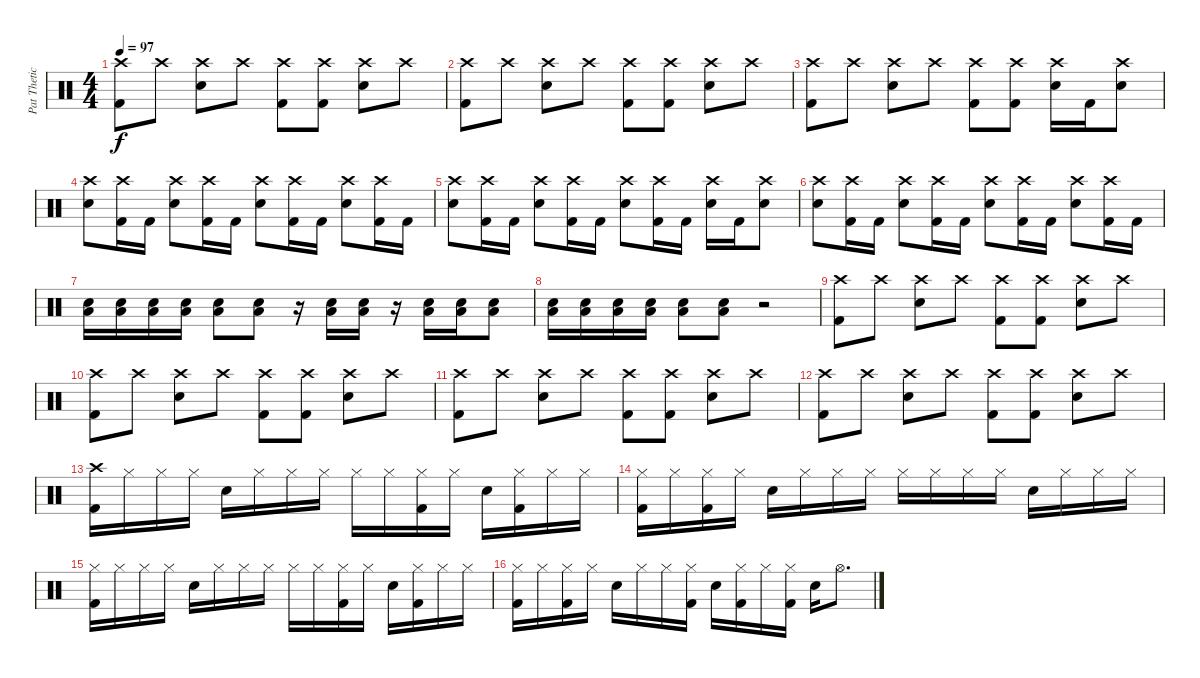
\track ("Pat Thetic" "Pat Thetic") {instrument percussion}
\staff {score}
\articulation defaults
\ts (4 4)
\tempo 97
\clef neutral
\ks c
("Crash high (hit)" "Kick (hit) 2").8{dy f} "Crash high (hit)".8 ("Crash high (hit)" "Electric Snare (hit)").8 "Crash high (hit)".8 ("Crash high (hit)" "Kick (hit) 2").8 ("Crash high (hit)" "Kick (hit) 2").8 ("Crash high (hit)" "Electric Snare (hit)").8 "Crash high (hit)".8 |
("Crash high (hit)" "Kick (hit) 2").8 "Crash high (hit)".8 ("Crash high (hit)" "Electric Snare (hit)").8 "Crash high (hit)".8 ("Crash high (hit)" "Kick (hit) 2").8 ("Crash high (hit)" "Kick (hit) 2").8 ("Crash high (hit)" "Electric Snare (hit)").8 "Crash high (hit)".8 |
("Crash high (hit)" "Kick (hit) 2").8 "Crash high (hit)".8 ("Crash high (hit)" "Electric Snare (hit)").8 "Crash high (hit)".8 ("Crash high (hit)" "Kick (hit) 2").8 ("Crash high (hit)" "Kick (hit) 2").8 ("Crash high (hit)" "Electric Snare (hit)").16 "Kick (hit) 2".16 ("Crash high (hit)" "Electric Snare (hit)").8 |
("Crash high (hit)" "Electric Snare (hit)").8 ("Crash high (hit)" "Kick (hit) 2").16 "Kick (hit) 2".16 ("Crash high (hit)" "Electric Snare (hit)").8 ("Crash high (hit)" "Kick (hit) 2").16 "Kick (hit) 2".16 ("Crash high (hit)" "Electric Snare (hit)").8 ("Crash high (hit)" "Kick (hit) 2").16 "Kick (hit) 2".16 ("Crash high (hit)" "Electric Snare (hit)").8 ("Crash high (hit)" "Kick (hit) 2").16 "Kick (hit) 2".16 |
("Crash high (hit)" "Electric Snare (hit)").8 ("Crash high (hit)" "Kick (hit) 2").16 "Kick (hit) 2".16 ("Crash high (hit)" "Electric Snare (hit)").8 ("Crash high (hit)" "Kick (hit) 2").16 "Kick (hit) 2".16 ("Crash high (hit)" "Electric Snare (hit)").8 ("Crash high (hit)" "Kick (hit) 2").16 "Kick (hit) 2".16 ("Crash high (hit)" "Electric Snare (hit)").16 "Kick (hit) 2".16 ("Crash high (hit)" "Electric Snare (hit)").8 |
("Crash high (hit)" "Electric Snare (hit)").8 ("Crash high (hit)" "Kick (hit) 2").16 "Kick (hit) 2".16 ("Crash high (hit)" "Electric Snare (hit)").8 ("Crash high (hit)" "Kick (hit) 2").16 "Kick (hit) 2".16 ("Crash high (hit)" "Electric Snare (hit)").8 ("Crash high (hit)" "Kick (hit) 2").16 "Kick (hit) 2".16 ("Crash high (hit)" "Electric Snare (hit)").8 ("Crash high (hit)" "Kick (hit) 2").16 "Kick (hit) 2".16 |
("Electric Snare (hit)" "Low Tom (hit)").16 ("Electric Snare (hit)" "Low Tom (hit)").16 ("Electric Snare (hit)" "Low Tom (hit)").16 ("Electric Snare (hit)" "Low Tom (hit)").16 ("Electric Snare (hit)" "Low Tom (hit)").8 ("Electric Snare (hit)" "Low Tom (hit)").8 r.16 ("Electric Snare (hit)" "Low Tom (hit)").16 ("Electric Snare (hit)" "Low Tom (hit)").16 r.16 ("Electric Snare (hit)" "Low Tom (hit)").16 ("Electric Snare (hit)" "Low Tom (hit)").16 ("Electric Snare (hit)" "Low Tom (hit)").8 |
("Low Tom (hit)" "Electric Snare (hit)").16 ("Low Tom (hit)" "Electric Snare (hit)").16 ("Low Tom (hit)" "Electric Snare (hit)").16 ("Low Tom (hit)" "Electric Snare (hit)").16 ("Low Tom (hit)" "Electric Snare (hit)").8 ("Low Tom (hit)" "Electric Snare (hit)").8 r.2 |
("Crash high (hit)" "Kick (hit) 2").8 "Crash high (hit)".8 ("Crash high (hit)" "Electric Snare (hit)").8 "Crash high (hit)".8 ("Crash high (hit)" "Kick (hit) 2").8 ("Crash high (hit)" "Kick (hit) 2").8 ("Crash high (hit)" "Electric Snare (hit)").8 "Crash high (hit)".8 |
("Crash high (hit)" "Kick (hit) 2").8 "Crash high (hit)".8 ("Crash high (hit)" "Electric Snare (hit)").8 "Crash high (hit)".8 ("Crash high (hit)" "Kick (hit) 2").8 ("Crash high (hit)" "Kick (hit) 2").8 ("Crash high (hit)" "Electric Snare (hit)").8 "Crash high (hit)".8 |
("Crash high (hit)" "Kick (hit) 2").8 "Crash high (hit)".8 ("Crash high (hit)" "Electric Snare (hit)").8 "Crash high (hit)".8 ("Crash high (hit)" "Kick (hit) 2").8 ("Crash high (hit)" "Kick (hit) 2").8 ("Crash high (hit)" "Electric Snare (hit)").8 "Crash high (hit)".8 |
("Crash high (hit)" "Kick (hit) 2").8 "Crash high (hit)".8 ("Crash high (hit)" "Electric Snare (hit)").8 "Crash high (hit)".8 ("Crash high (hit)" "Kick (hit) 2").8 ("Crash high (hit)" "Kick (hit) 2").8 ("Crash high (hit)" "Electric Snare (hit)").8 "Crash high (hit)".8 |
("Crash high (hit)" "Kick (hit) 2").16 "Hi-Hat (closed)".16 "Hi-Hat (closed)".16 "Hi-Hat (closed)".16 "Electric Snare (hit)".16 "Hi-Hat (closed)".16 "Hi-Hat (closed)".16 "Hi-Hat (closed)".16 "Hi-Hat (closed)".16 "Hi-Hat (closed)".16 ("Hi-Hat (closed)" "Kick (hit) 2").16 "Hi-Hat (closed)".16 "Electric Snare (hit)".16 ("Hi-Hat (closed)" "Kick (hit) 2").16 "Hi-Hat (closed)".16 "Hi-Hat (closed)".16 |
("Hi-Hat (closed)" "Kick (hit) 2").16 "Hi-Hat (closed)".16 ("Hi-Hat (closed)" "Kick (hit) 2").16 "Hi-Hat (closed)".16 "Electric Snare (hit)".16 "Hi-Hat (closed)".16 "Hi-Hat (closed)".16 "Hi-Hat (closed)".16 "Hi-Hat (closed)".16 "Hi-Hat (closed)".16 "Hi-Hat (closed)".16 "Hi-Hat (closed)".16 "Electric Snare (hit)".16 "Hi-Hat (closed)".16 "Hi-Hat (closed)".16 "Hi-Hat (closed)".16 |
("Hi-Hat (closed)" "Kick (hit) 2").16 "Hi-Hat (closed)".16 "Hi-Hat (closed)".16 "Hi-Hat (closed)".16 "Electric Snare (hit)".16 "Hi-Hat (closed)".16 "Hi-Hat (closed)".16 "Hi-Hat (closed)".16 "Hi-Hat (closed)".16 "Hi-Hat (closed)".16 ("Hi-Hat (closed)" "Kick (hit) 2").16 "Hi-Hat (closed)".16 "Electric Snare (hit)".16 ("Hi-Hat (closed)" "Kick (hit) 2").16 "Hi-Hat (closed)".16 "Hi-Hat (closed)".16 |
("Kick (hit) 2" "Hi-Hat (closed)").16 "Hi-Hat (closed)".16 ("Kick (hit) 2" "Hi-Hat (closed)").16 "Hi-Hat (closed)".16 "Electric Snare (hit)".16 "Hi-Hat (closed)".16 "Hi-Hat (closed)".16 ("Kick (hit) 2" "Hi-Hat (closed)").16 "Electric Snare (hit)".16 ("Kick (hit) 2" "Hi-Hat (closed)").16 "Hi-Hat (closed)".16 ("Kick (hit) 2" "Hi-Hat (closed)").16 "Electric Snare (hit)".16 "Hi-Hat (open)".8{d}
